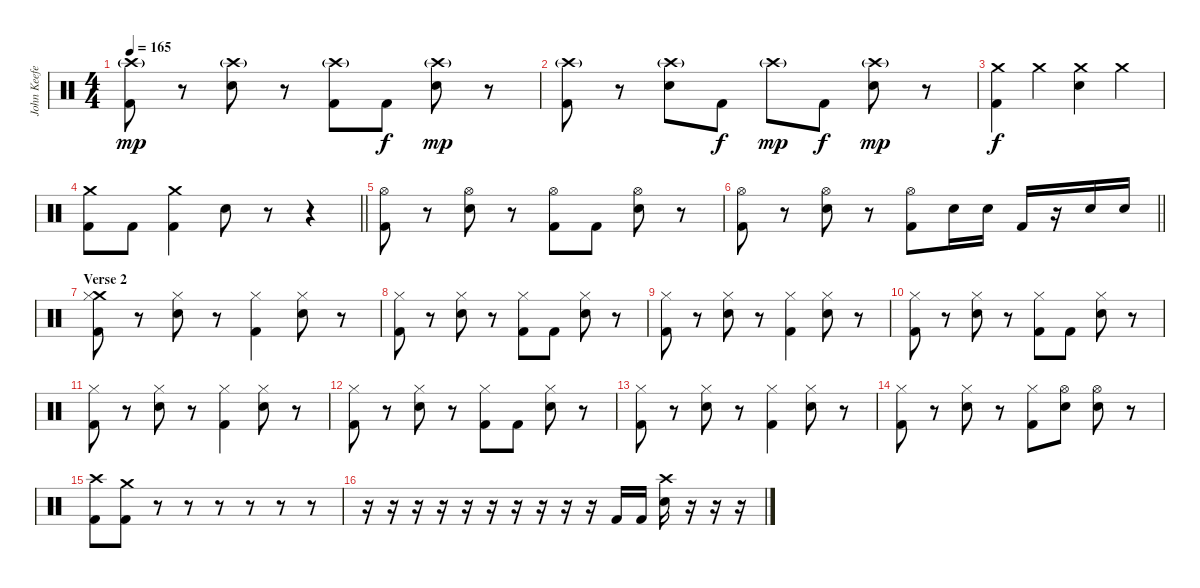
\track ("John Keefe (Percussion)" "John Keefe") {instrument percussion}
\staff {score}
\articulation defaults
\ts (4 4)
\tempo 165
\clef neutral
\ks c
("Crash high (hit)"{g} "Kick (hit) 2").8{dy mp} r.8 ("Crash high (hit)"{g} "Electric Snare (hit)").8 r.8 ("Crash high (hit)"{g} "Kick (hit) 2").8 "Kick (hit) 2".8{dy f} ("Crash high (hit)"{g} "Electric Snare (hit)").8{dy mp} r.8 |
("Crash high (hit)"{g} "Kick (hit) 2").8 r.8 ("Crash high (hit)"{g} "Electric Snare (hit)").8 "Kick (hit) 2".8{dy f} "Crash high (hit)"{g}.8{dy mp} "Kick (hit) 2".8{dy f} ("Crash high (hit)"{g} "Electric Snare (hit)").8{dy mp} r.8 |
("Crash medium (hit)" "Kick (hit) 2").4{dy f} "Crash medium (hit)".4 ("Crash medium (hit)" "Electric Snare (hit)").4 "Crash medium (hit)".4 |
\barLineRight lightlight
("Crash medium (hit)" "Kick (hit) 2").8 "Kick (hit) 2".8 ("Crash medium (hit)" "Kick (hit) 2").4 "Electric Snare (hit)".8 r.8 r.4 |
("Hi-Hat (open)" "Kick (hit) 2").8 r.8 ("Hi-Hat (open)" "Electric Snare (hit)").8 r.8 ("Hi-Hat (open)" "Kick (hit) 2").8 "Kick (hit) 2".8 ("Hi-Hat (open)" "Electric Snare (hit)").8 r.8 |
\barLineRight lightlight
("Hi-Hat (open)" "Kick (hit) 2").8 r.8 ("Hi-Hat (open)" "Electric Snare (hit)").8 r.8 ("Hi-Hat (open)" "Kick (hit) 2").8 "Electric Snare (hit)".16 "Electric Snare (hit)".16 "Kick (hit) 2".16 r.16 "Electric Snare (hit)".16 "Electric Snare (hit)".16 |
\section ("" "Verse 2")
("Crash medium (hit)" "Hi-Hat (closed)" "Kick (hit) 2").8 r.8 ("Hi-Hat (closed)" "Electric Snare (hit)").8 r.8 ("Hi-Hat (closed)" "Kick (hit) 2").4 ("Hi-Hat (closed)" "Electric Snare (hit)").8 r.8 |
("Hi-Hat (closed)" "Kick (hit) 2").8 r.8 ("Hi-Hat (closed)" "Electric Snare (hit)").8 r.8 ("Hi-Hat (closed)" "Kick (hit) 2").8 "Kick (hit) 2".8 ("Hi-Hat (closed)" "Electric Snare (hit)").8 r.8 |
("Hi-Hat (closed)" "Kick (hit) 2").8 r.8 ("Hi-Hat (closed)" "Electric Snare (hit)").8 r.8 ("Hi-Hat (closed)" "Kick (hit) 2").4 ("Hi-Hat (closed)" "Electric Snare (hit)").8 r.8 |
("Hi-Hat (closed)" "Kick (hit) 2").8 r.8 ("Hi-Hat (closed)" "Electric Snare (hit)").8 r.8 ("Hi-Hat (closed)" "Kick (hit) 2").8 "Kick (hit) 2".8 ("Hi-Hat (closed)" "Electric Snare (hit)").8 r.8 |
("Hi-Hat (closed)" "Kick (hit) 2").8 r.8 ("Hi-Hat (closed)" "Electric Snare (hit)").8 r.8 ("Hi-Hat (closed)" "Kick (hit) 2").4 ("Hi-Hat (closed)" "Electric Snare (hit)").8 r.8 |
("Hi-Hat (closed)" "Kick (hit) 2").8 r.8 ("Hi-Hat (closed)" "Electric Snare (hit)").8 r.8 ("Hi-Hat (closed)" "Kick (hit) 2").8 "Kick (hit) 2".8 ("Hi-Hat (closed)" "Electric Snare (hit)").8 r.8 |
("Hi-Hat (closed)" "Kick (hit) 2").8 r.8 ("Hi-Hat (closed)" "Electric Snare (hit)").8 r.8 ("Hi-Hat (closed)" "Kick (hit) 2").4 ("Hi-Hat (closed)" "Electric Snare (hit)").8 r.8 |
("Hi-Hat (closed)" "Kick (hit) 2").8 r.8 ("Hi-Hat (closed)" "Electric Snare (hit)").8 r.8 ("Hi-Hat (closed)" "Kick (hit) 2").8 ("Hi-Hat (open)" "Electric Snare (hit)").8 ("Hi-Hat (open)" "Electric Snare (hit)").8 r.8 |
("Crash high (hit)" "Kick (hit) 2").8 ("Crash medium (hit)" "Kick (hit) 2").8 r.8 r.8 r.8 r.8 r.8 r.8 |
r.16 r.16 r.16 r.16 r.16 r.16 r.16 r.16 r.16 r.16 "Kick (hit) 2".16 "Kick (hit) 2".16 ("Crash high (hit)" "Electric Snare (hit)").16 r.16 r.16 r.16
